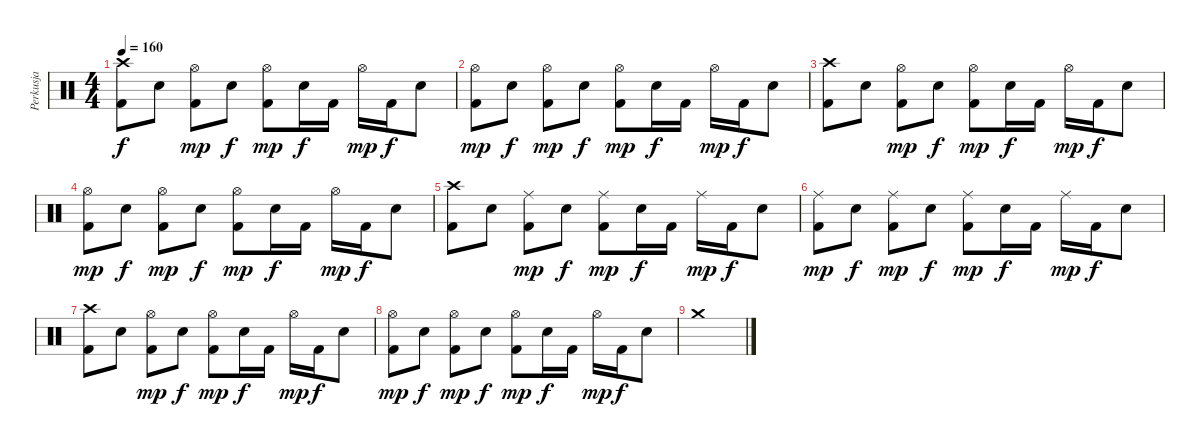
\track ("Perkusja" "Perkusja") {instrument percussion}
\staff {score}
\articulation defaults
\ts (4 4)
\tempo 160
\clef neutral
\ks c
("Kick (hit) 2" "Crash high (hit)").8{dy f} "Electric Snare (hit)".8 ("Kick (hit) 2" "Hi-Hat (open)").8{dy mp} "Electric Snare (hit)".8{dy f} ("Kick (hit) 2" "Hi-Hat (open)").8{dy mp} "Electric Snare (hit)".16{dy f} "Kick (hit) 2".16 "Hi-Hat (open)".16{dy mp} "Kick (hit) 2".16{dy f} "Electric Snare (hit)".8 |
("Kick (hit) 2" "Hi-Hat (open)").8{dy mp} "Electric Snare (hit)".8{dy f} ("Kick (hit) 2" "Hi-Hat (open)").8{dy mp} "Electric Snare (hit)".8{dy f} ("Kick (hit) 2" "Hi-Hat (open)").8{dy mp} "Electric Snare (hit)".16{dy f} "Kick (hit) 2".16 "Hi-Hat (open)".16{dy mp} "Kick (hit) 2".16{dy f} "Electric Snare (hit)".8 |
("Kick (hit) 2" "Crash high (hit)").8 "Electric Snare (hit)".8 ("Kick (hit) 2" "Hi-Hat (open)").8{dy mp} "Electric Snare (hit)".8{dy f} ("Kick (hit) 2" "Hi-Hat (open)").8{dy mp} "Electric Snare (hit)".16{dy f} "Kick (hit) 2".16 "Hi-Hat (open)".16{dy mp} "Kick (hit) 2".16{dy f} "Electric Snare (hit)".8 |
("Kick (hit) 2" "Hi-Hat (open)").8{dy mp} "Electric Snare (hit)".8{dy f} ("Kick (hit) 2" "Hi-Hat (open)").8{dy mp} "Electric Snare (hit)".8{dy f} ("Kick (hit) 2" "Hi-Hat (open)").8{dy mp} "Electric Snare (hit)".16{dy f} "Kick (hit) 2".16 "Hi-Hat (open)".16{dy mp} "Kick (hit) 2".16{dy f} "Electric Snare (hit)".8 |
("Kick (hit) 2" "Crash high (hit)").8 "Electric Snare (hit)".8 ("Kick (hit) 2" "Ride (middle)").8{dy mp} "Electric Snare (hit)".8{dy f} ("Kick (hit) 2" "Ride (middle)").8{dy mp} "Electric Snare (hit)".16{dy f} "Kick (hit) 2".16 "Ride (middle)".16{dy mp} "Kick (hit) 2".16{dy f} "Electric Snare (hit)".8 |
("Kick (hit) 2" "Ride (middle)").8{dy mp} "Electric Snare (hit)".8{dy f} ("Kick (hit) 2" "Ride (middle)").8{dy mp} "Electric Snare (hit)".8{dy f} ("Kick (hit) 2" "Ride (middle)").8{dy mp} "Electric Snare (hit)".16{dy f} "Kick (hit) 2".16 "Ride (middle)".16{dy mp} "Kick (hit) 2".16{dy f} "Electric Snare (hit)".8 |
("Kick (hit) 2" "Crash high (hit)").8 "Electric Snare (hit)".8 ("Kick (hit) 2" "Hi-Hat (open)").8{dy mp} "Electric Snare (hit)".8{dy f} ("Kick (hit) 2" "Hi-Hat (open)").8{dy mp} "Electric Snare (hit)".16{dy f} "Kick (hit) 2".16 "Hi-Hat (open)".16{dy mp} "Kick (hit) 2".16{dy f} "Electric Snare (hit)".8 |
("Kick (hit) 2" "Hi-Hat (open)").8{dy mp} "Electric Snare (hit)".8{dy f} ("Kick (hit) 2" "Hi-Hat (open)").8{dy mp} "Electric Snare (hit)".8{dy f} ("Kick (hit) 2" "Hi-Hat (open)").8{dy mp} "Electric Snare (hit)".16{dy f} "Kick (hit) 2".16 "Hi-Hat (open)".16{dy mp} "Kick (hit) 2".16{dy f} "Electric Snare (hit)".8 |
"Crash medium (hit)".1
